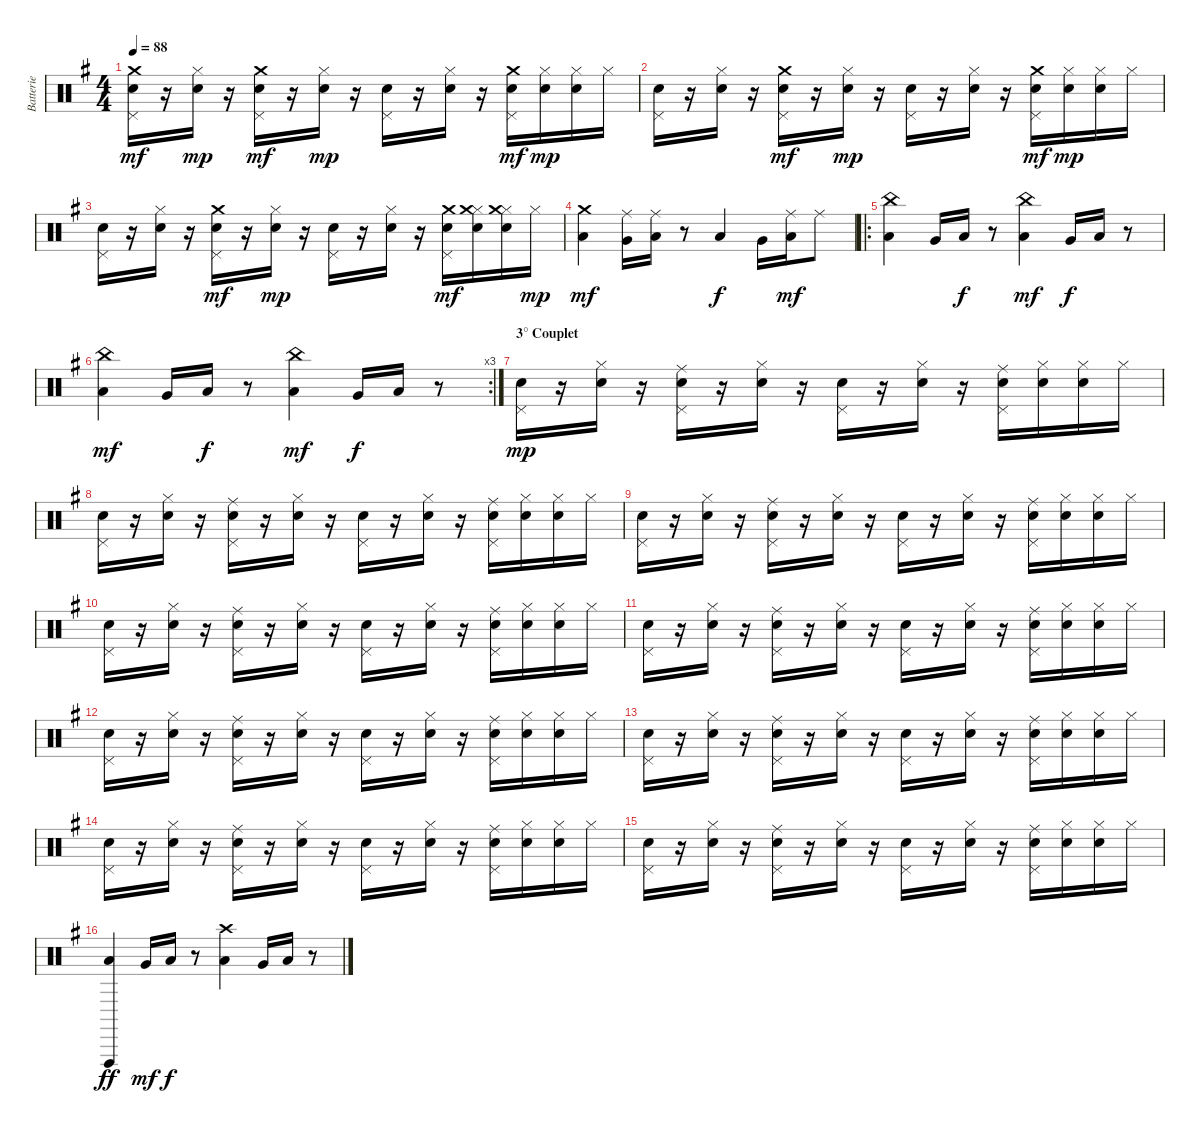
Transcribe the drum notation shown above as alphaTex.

\track ("Batterie" "Batterie") {instrument percussion}
\staff {score}
\articulation defaults
\ts (4 4)
\tempo 88
\clef neutral
\ks g
("Electric Snare (hit)" "Pedal Hi-Hat (hit)" "Crash medium (hit)").16{dy mf} r.16 ("Electric Snare (hit)" "Hi-Hat (closed)").16{dy mp} r.16 ("Electric Snare (hit)" "Pedal Hi-Hat (hit)" "Crash medium (hit)").16{dy mf} r.16 ("Electric Snare (hit)" "Hi-Hat (closed)").16{dy mp} r.16 ("Electric Snare (hit)" "Pedal Hi-Hat (hit)").16 r.16 ("Electric Snare (hit)" "Hi-Hat (closed)").16 r.16 ("Electric Snare (hit)" "Pedal Hi-Hat (hit)" "Crash medium (hit)").16{dy mf} ("Electric Snare (hit)" "Hi-Hat (closed)").16{dy mp} ("Electric Snare (hit)" "Hi-Hat (closed)").16 "Hi-Hat (closed)".16 |
("Electric Snare (hit)" "Pedal Hi-Hat (hit)").16 r.16 ("Electric Snare (hit)" "Hi-Hat (closed)").16 r.16 ("Electric Snare (hit)" "Pedal Hi-Hat (hit)" "Crash medium (hit)").16{dy mf} r.16 ("Electric Snare (hit)" "Hi-Hat (closed)").16{dy mp} r.16 ("Electric Snare (hit)" "Pedal Hi-Hat (hit)").16 r.16 ("Electric Snare (hit)" "Hi-Hat (closed)").16 r.16 ("Electric Snare (hit)" "Pedal Hi-Hat (hit)" "Crash medium (hit)").16{dy mf} ("Electric Snare (hit)" "Hi-Hat (closed)").16{dy mp} ("Electric Snare (hit)" "Hi-Hat (closed)").16 "Hi-Hat (closed)".16 |
("Electric Snare (hit)" "Pedal Hi-Hat (hit)").16 r.16 ("Electric Snare (hit)" "Hi-Hat (closed)").16 r.16 ("Electric Snare (hit)" "Pedal Hi-Hat (hit)" "Crash medium (hit)").16{dy mf} r.16 ("Electric Snare (hit)" "Hi-Hat (closed)").16{dy mp} r.16 ("Electric Snare (hit)" "Pedal Hi-Hat (hit)").16 r.16 ("Electric Snare (hit)" "Hi-Hat (closed)").16 r.16 ("Electric Snare (hit)" "Pedal Hi-Hat (hit)" "Crash medium (hit)").16{dy mf} ("Electric Snare (hit)" "Hi-Hat (closed)" "Crash medium (hit)").16 ("Electric Snare (hit)" "Hi-Hat (closed)" "Crash medium (hit)").16 "Hi-Hat (closed)".16{dy mp} |
("Low Floor Tom (hit)" "Crash medium (hit)").4{dy mf} ("Very Low Tom (hit)" "Ride (middle)").16 ("Low Floor Tom (hit)" "Ride (middle)").16 r.8 "Low Floor Tom (hit)".4{dy f} "Very Low Tom (hit)".16 ("Low Floor Tom (hit)" "Ride (middle)").16{dy mf} "Ride (middle)".8 |
\ro
("Low Floor Tom (hit)" "China (hit)").4 "Very Low Tom (hit)".16 "Low Floor Tom (hit)".16{dy f} r.8 ("Low Floor Tom (hit)" "China (hit)").4{dy mf} "Very Low Tom (hit)".16{dy f} "Low Floor Tom (hit)".16 r.8 |
\rc 3
("Low Floor Tom (hit)" "China (hit)").4{dy mf} "Very Low Tom (hit)".16 "Low Floor Tom (hit)".16{dy f} r.8 ("Low Floor Tom (hit)" "China (hit)").4{dy mf} "Very Low Tom (hit)".16{dy f} "Low Floor Tom (hit)".16 r.8 |
\section ("" "3° Couplet")
("Electric Snare (hit)" "Pedal Hi-Hat (hit)").16{dy mp} r.16 ("Electric Snare (hit)" "Hi-Hat (closed)").16 r.16 ("Electric Snare (hit)" "Pedal Hi-Hat (hit)" "Ride (middle)").16 r.16 ("Electric Snare (hit)" "Hi-Hat (closed)").16 r.16 ("Electric Snare (hit)" "Pedal Hi-Hat (hit)").16 r.16 ("Electric Snare (hit)" "Hi-Hat (closed)").16 r.16 ("Electric Snare (hit)" "Pedal Hi-Hat (hit)" "Ride (middle)").16 ("Electric Snare (hit)" "Hi-Hat (closed)").16 ("Electric Snare (hit)" "Hi-Hat (closed)").16 "Hi-Hat (closed)".16 |
("Electric Snare (hit)" "Pedal Hi-Hat (hit)").16 r.16 ("Electric Snare (hit)" "Hi-Hat (closed)").16 r.16 ("Electric Snare (hit)" "Pedal Hi-Hat (hit)" "Ride (middle)").16 r.16 ("Electric Snare (hit)" "Hi-Hat (closed)").16 r.16 ("Electric Snare (hit)" "Pedal Hi-Hat (hit)").16 r.16 ("Electric Snare (hit)" "Hi-Hat (closed)").16 r.16 ("Electric Snare (hit)" "Pedal Hi-Hat (hit)" "Ride (middle)").16 ("Electric Snare (hit)" "Hi-Hat (closed)").16 ("Electric Snare (hit)" "Hi-Hat (closed)").16 "Hi-Hat (closed)".16 |
("Electric Snare (hit)" "Pedal Hi-Hat (hit)").16 r.16 ("Electric Snare (hit)" "Hi-Hat (closed)").16 r.16 ("Electric Snare (hit)" "Pedal Hi-Hat (hit)" "Ride (middle)").16 r.16 ("Electric Snare (hit)" "Hi-Hat (closed)").16 r.16 ("Electric Snare (hit)" "Pedal Hi-Hat (hit)").16 r.16 ("Electric Snare (hit)" "Hi-Hat (closed)").16 r.16 ("Electric Snare (hit)" "Pedal Hi-Hat (hit)" "Ride (middle)").16 ("Electric Snare (hit)" "Hi-Hat (closed)").16 ("Electric Snare (hit)" "Hi-Hat (closed)").16 "Hi-Hat (closed)".16 |
("Electric Snare (hit)" "Pedal Hi-Hat (hit)").16 r.16 ("Electric Snare (hit)" "Hi-Hat (closed)").16 r.16 ("Electric Snare (hit)" "Pedal Hi-Hat (hit)" "Ride (middle)").16 r.16 ("Electric Snare (hit)" "Hi-Hat (closed)").16 r.16 ("Electric Snare (hit)" "Pedal Hi-Hat (hit)").16 r.16 ("Electric Snare (hit)" "Hi-Hat (closed)").16 r.16 ("Electric Snare (hit)" "Pedal Hi-Hat (hit)" "Ride (middle)").16 ("Electric Snare (hit)" "Hi-Hat (closed)").16 ("Electric Snare (hit)" "Hi-Hat (closed)").16 "Hi-Hat (closed)".16 |
("Electric Snare (hit)" "Pedal Hi-Hat (hit)").16 r.16 ("Electric Snare (hit)" "Hi-Hat (closed)").16 r.16 ("Electric Snare (hit)" "Pedal Hi-Hat (hit)" "Ride (middle)").16 r.16 ("Electric Snare (hit)" "Hi-Hat (closed)").16 r.16 ("Electric Snare (hit)" "Pedal Hi-Hat (hit)").16 r.16 ("Electric Snare (hit)" "Hi-Hat (closed)").16 r.16 ("Electric Snare (hit)" "Pedal Hi-Hat (hit)" "Ride (middle)").16 ("Electric Snare (hit)" "Hi-Hat (closed)").16 ("Electric Snare (hit)" "Hi-Hat (closed)").16 "Hi-Hat (closed)".16 |
("Electric Snare (hit)" "Pedal Hi-Hat (hit)").16 r.16 ("Electric Snare (hit)" "Hi-Hat (closed)").16 r.16 ("Electric Snare (hit)" "Pedal Hi-Hat (hit)" "Ride (middle)").16 r.16 ("Electric Snare (hit)" "Hi-Hat (closed)").16 r.16 ("Electric Snare (hit)" "Pedal Hi-Hat (hit)").16 r.16 ("Electric Snare (hit)" "Hi-Hat (closed)").16 r.16 ("Electric Snare (hit)" "Pedal Hi-Hat (hit)" "Ride (middle)").16 ("Electric Snare (hit)" "Hi-Hat (closed)").16 ("Electric Snare (hit)" "Hi-Hat (closed)").16 "Hi-Hat (closed)".16 |
("Electric Snare (hit)" "Pedal Hi-Hat (hit)").16 r.16 ("Electric Snare (hit)" "Hi-Hat (closed)").16 r.16 ("Electric Snare (hit)" "Pedal Hi-Hat (hit)" "Ride (middle)").16 r.16 ("Electric Snare (hit)" "Hi-Hat (closed)").16 r.16 ("Electric Snare (hit)" "Pedal Hi-Hat (hit)").16 r.16 ("Electric Snare (hit)" "Hi-Hat (closed)").16 r.16 ("Electric Snare (hit)" "Pedal Hi-Hat (hit)" "Ride (middle)").16 ("Electric Snare (hit)" "Hi-Hat (closed)").16 ("Electric Snare (hit)" "Hi-Hat (closed)").16 "Hi-Hat (closed)".16 |
("Electric Snare (hit)" "Pedal Hi-Hat (hit)").16 r.16 ("Electric Snare (hit)" "Hi-Hat (closed)").16 r.16 ("Electric Snare (hit)" "Pedal Hi-Hat (hit)" "Ride (middle)").16 r.16 ("Electric Snare (hit)" "Hi-Hat (closed)").16 r.16 ("Electric Snare (hit)" "Pedal Hi-Hat (hit)").16 r.16 ("Electric Snare (hit)" "Hi-Hat (closed)").16 r.16 ("Electric Snare (hit)" "Pedal Hi-Hat (hit)" "Ride (middle)").16 ("Electric Snare (hit)" "Hi-Hat (closed)").16 ("Electric Snare (hit)" "Hi-Hat (closed)").16 "Hi-Hat (closed)".16 |
("Electric Snare (hit)" "Pedal Hi-Hat (hit)").16 r.16 ("Electric Snare (hit)" "Hi-Hat (closed)").16 r.16 ("Electric Snare (hit)" "Pedal Hi-Hat (hit)" "Ride (middle)").16 r.16 ("Electric Snare (hit)" "Hi-Hat (closed)").16 r.16 ("Electric Snare (hit)" "Pedal Hi-Hat (hit)").16 r.16 ("Electric Snare (hit)" "Hi-Hat (closed)").16 r.16 ("Electric Snare (hit)" "Pedal Hi-Hat (hit)" "Ride (middle)").16 ("Electric Snare (hit)" "Hi-Hat (closed)").16 ("Electric Snare (hit)" "Hi-Hat (closed)").16 "Hi-Hat (closed)".16 |
("Low Floor Tom (hit)" "Vibraslap (hit)").4{dy ff} "Very Low Tom (hit)".16{dy mf} "Low Floor Tom (hit)".16{dy f} r.8 ("Low Floor Tom (hit)" "Crash high (hit)").4 "Very Low Tom (hit)".16 "Low Floor Tom (hit)".16 r.8
